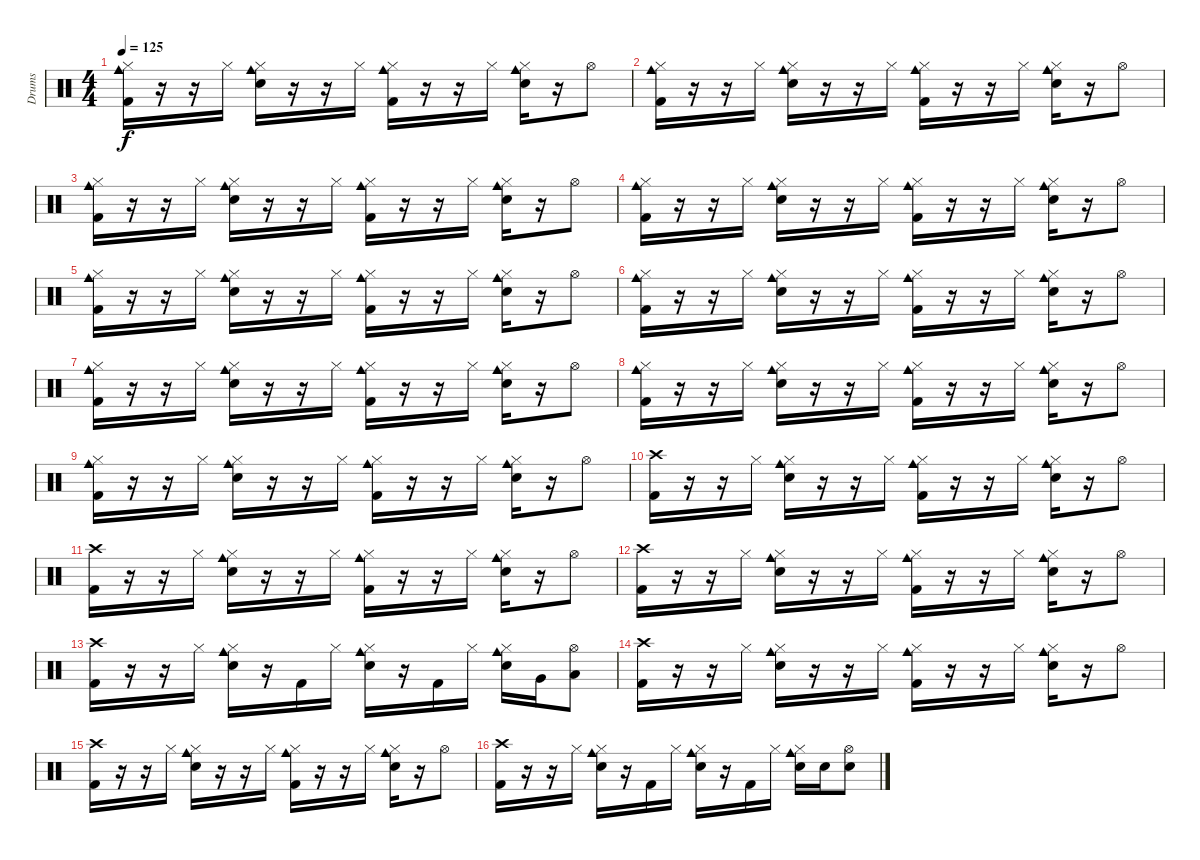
\track ("Drums" "Drums") {instrument percussion}
\staff {score}
\articulation defaults
\ts (4 4)
\tempo 125
\clef neutral
\ks c
("Cowbell medium (hit)" "Hi-Hat (closed)" "Kick (hit) 2").16{dy f} r.16 r.16 "Hi-Hat (closed)".16 ("Cowbell medium (hit)" "Hi-Hat (closed)" "Electric Snare (hit)").16 r.16 r.16 "Hi-Hat (closed)".16 ("Cowbell medium (hit)" "Hi-Hat (closed)" "Kick (hit) 2").16 r.16 r.16 "Hi-Hat (closed)".16 ("Cowbell medium (hit)" "Hi-Hat (closed)" "Electric Snare (hit)").16 r.16 "Hi-Hat (open)".8 |
("Cowbell medium (hit)" "Hi-Hat (closed)" "Kick (hit) 2").16 r.16 r.16 "Hi-Hat (closed)".16 ("Cowbell medium (hit)" "Hi-Hat (closed)" "Electric Snare (hit)").16 r.16 r.16 "Hi-Hat (closed)".16 ("Cowbell medium (hit)" "Hi-Hat (closed)" "Kick (hit) 2").16 r.16 r.16 "Hi-Hat (closed)".16 ("Cowbell medium (hit)" "Hi-Hat (closed)" "Electric Snare (hit)").16 r.16 "Hi-Hat (open)".8 |
("Cowbell medium (hit)" "Hi-Hat (closed)" "Kick (hit) 2").16 r.16 r.16 "Hi-Hat (closed)".16 ("Cowbell medium (hit)" "Hi-Hat (closed)" "Electric Snare (hit)").16 r.16 r.16 "Hi-Hat (closed)".16 ("Cowbell medium (hit)" "Hi-Hat (closed)" "Kick (hit) 2").16 r.16 r.16 "Hi-Hat (closed)".16 ("Cowbell medium (hit)" "Hi-Hat (closed)" "Electric Snare (hit)").16 r.16 "Hi-Hat (open)".8 |
("Cowbell medium (hit)" "Hi-Hat (closed)" "Kick (hit) 2").16 r.16 r.16 "Hi-Hat (closed)".16 ("Cowbell medium (hit)" "Hi-Hat (closed)" "Electric Snare (hit)").16 r.16 r.16 "Hi-Hat (closed)".16 ("Cowbell medium (hit)" "Hi-Hat (closed)" "Kick (hit) 2").16 r.16 r.16 "Hi-Hat (closed)".16 ("Cowbell medium (hit)" "Hi-Hat (closed)" "Electric Snare (hit)").16 r.16 "Hi-Hat (open)".8 |
("Cowbell medium (hit)" "Hi-Hat (closed)" "Kick (hit) 2").16 r.16 r.16 "Hi-Hat (closed)".16 ("Cowbell medium (hit)" "Hi-Hat (closed)" "Electric Snare (hit)").16 r.16 r.16 "Hi-Hat (closed)".16 ("Cowbell medium (hit)" "Hi-Hat (closed)" "Kick (hit) 2").16 r.16 r.16 "Hi-Hat (closed)".16 ("Cowbell medium (hit)" "Hi-Hat (closed)" "Electric Snare (hit)").16 r.16 "Hi-Hat (open)".8 |
("Cowbell medium (hit)" "Hi-Hat (closed)" "Kick (hit) 2").16 r.16 r.16 "Hi-Hat (closed)".16 ("Cowbell medium (hit)" "Hi-Hat (closed)" "Electric Snare (hit)").16 r.16 r.16 "Hi-Hat (closed)".16 ("Cowbell medium (hit)" "Hi-Hat (closed)" "Kick (hit) 2").16 r.16 r.16 "Hi-Hat (closed)".16 ("Cowbell medium (hit)" "Hi-Hat (closed)" "Electric Snare (hit)").16 r.16 "Hi-Hat (open)".8 |
("Cowbell medium (hit)" "Hi-Hat (closed)" "Kick (hit) 2").16 r.16 r.16 "Hi-Hat (closed)".16 ("Cowbell medium (hit)" "Hi-Hat (closed)" "Electric Snare (hit)").16 r.16 r.16 "Hi-Hat (closed)".16 ("Cowbell medium (hit)" "Hi-Hat (closed)" "Kick (hit) 2").16 r.16 r.16 "Hi-Hat (closed)".16 ("Cowbell medium (hit)" "Hi-Hat (closed)" "Electric Snare (hit)").16 r.16 "Hi-Hat (open)".8 |
("Cowbell medium (hit)" "Hi-Hat (closed)" "Kick (hit) 2").16 r.16 r.16 "Hi-Hat (closed)".16 ("Cowbell medium (hit)" "Hi-Hat (closed)" "Electric Snare (hit)").16 r.16 r.16 "Hi-Hat (closed)".16 ("Cowbell medium (hit)" "Hi-Hat (closed)" "Kick (hit) 2").16 r.16 r.16 "Hi-Hat (closed)".16 ("Cowbell medium (hit)" "Hi-Hat (closed)" "Electric Snare (hit)").16 r.16 "Hi-Hat (open)".8 |
("Cowbell medium (hit)" "Hi-Hat (closed)" "Kick (hit) 2").16 r.16 r.16 "Hi-Hat (closed)".16 ("Cowbell medium (hit)" "Hi-Hat (closed)" "Electric Snare (hit)").16 r.16 r.16 "Hi-Hat (closed)".16 ("Cowbell medium (hit)" "Hi-Hat (closed)" "Kick (hit) 2").16 r.16 r.16 "Hi-Hat (closed)".16 ("Cowbell medium (hit)" "Hi-Hat (closed)" "Electric Snare (hit)").16 r.16 "Hi-Hat (open)".8 |
("Crash high (hit)" "Kick (hit) 2").16 r.16 r.16 "Hi-Hat (closed)".16 ("Cowbell medium (hit)" "Hi-Hat (closed)" "Electric Snare (hit)").16 r.16 r.16 "Hi-Hat (closed)".16 ("Cowbell medium (hit)" "Hi-Hat (closed)" "Kick (hit) 2").16 r.16 r.16 "Hi-Hat (closed)".16 ("Cowbell medium (hit)" "Hi-Hat (closed)" "Electric Snare (hit)").16 r.16 "Hi-Hat (open)".8 |
("Crash high (hit)" "Kick (hit) 2").16 r.16 r.16 "Hi-Hat (closed)".16 ("Cowbell medium (hit)" "Hi-Hat (closed)" "Electric Snare (hit)").16 r.16 r.16 "Hi-Hat (closed)".16 ("Cowbell medium (hit)" "Hi-Hat (closed)" "Kick (hit) 2").16 r.16 r.16 "Hi-Hat (closed)".16 ("Cowbell medium (hit)" "Hi-Hat (closed)" "Electric Snare (hit)").16 r.16 "Hi-Hat (open)".8 |
("Crash high (hit)" "Kick (hit) 2").16 r.16 r.16 "Hi-Hat (closed)".16 ("Cowbell medium (hit)" "Hi-Hat (closed)" "Electric Snare (hit)").16 r.16 r.16 "Hi-Hat (closed)".16 ("Cowbell medium (hit)" "Hi-Hat (closed)" "Kick (hit) 2").16 r.16 r.16 "Hi-Hat (closed)".16 ("Cowbell medium (hit)" "Hi-Hat (closed)" "Electric Snare (hit)").16 r.16 "Hi-Hat (open)".8 |
("Crash high (hit)" "Kick (hit) 2").16 r.16 r.16 "Hi-Hat (closed)".16 ("Cowbell medium (hit)" "Hi-Hat (closed)" "Electric Snare (hit)").16 r.16 "Kick (hit) 2".16 "Hi-Hat (closed)".16 ("Cowbell medium (hit)" "Hi-Hat (closed)" "Electric Snare (hit)").16 r.16 "Kick (hit) 2".16 "Hi-Hat (closed)".16 ("Cowbell medium (hit)" "Hi-Hat (closed)" "Electric Snare (hit)").16 "Very Low Tom (hit)".16 ("Hi-Hat (open)" "Low Floor Tom (hit)").8 |
("Crash high (hit)" "Kick (hit) 2").16 r.16 r.16 "Hi-Hat (closed)".16 ("Cowbell medium (hit)" "Hi-Hat (closed)" "Electric Snare (hit)").16 r.16 r.16 "Hi-Hat (closed)".16 ("Cowbell medium (hit)" "Hi-Hat (closed)" "Kick (hit) 2").16 r.16 r.16 "Hi-Hat (closed)".16 ("Cowbell medium (hit)" "Hi-Hat (closed)" "Electric Snare (hit)").16 r.16 "Hi-Hat (open)".8 |
("Crash high (hit)" "Kick (hit) 2").16 r.16 r.16 "Hi-Hat (closed)".16 ("Cowbell medium (hit)" "Hi-Hat (closed)" "Electric Snare (hit)").16 r.16 r.16 "Hi-Hat (closed)".16 ("Cowbell medium (hit)" "Hi-Hat (closed)" "Kick (hit) 2").16 r.16 r.16 "Hi-Hat (closed)".16 ("Cowbell medium (hit)" "Hi-Hat (closed)" "Electric Snare (hit)").16 r.16 "Hi-Hat (open)".8 |
("Crash high (hit)" "Kick (hit) 2").16 r.16 r.16 "Hi-Hat (closed)".16 ("Cowbell medium (hit)" "Hi-Hat (closed)" "Electric Snare (hit)").16 r.16 "Kick (hit) 2".16 "Hi-Hat (closed)".16 ("Cowbell medium (hit)" "Hi-Hat (closed)" "Electric Snare (hit)").16 r.16 "Kick (hit) 2".16 "Hi-Hat (closed)".16 ("Cowbell medium (hit)" "Hi-Hat (closed)" "Electric Snare (hit)").16 "Electric Snare (hit)".16 ("Hi-Hat (open)" "Electric Snare (hit)").8
